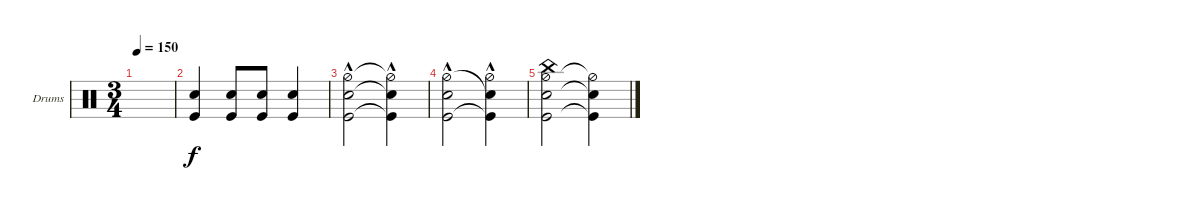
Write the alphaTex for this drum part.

\defaultSystemsLayout 4
\bracketExtendMode groupsimilarinstruments
\firstSystemTrackNameOrientation horizontal
\otherSystemsTrackNameOrientation horizontal
\track ("Drumkit" "Drums") {instrument percussion}
\staff {score}
\articulation defaults
\ts (3 4)
\tempo 150
\clef neutral
\ks c
|
("Kick (hit)" "Snare (hit) 2").4 ("Kick (hit)" "Snare (hit) 2").8 ("Kick (hit)" "Snare (hit) 2").8 ("Kick (hit)" "Snare (hit) 2").4 |
("Kick (hit)"{hac} "Hi-Hat (half)"{hac} "Snare (hit) 2"{hac}).2 ("Kick (hit)"{hac t} "Hi-Hat (half)"{hac t} "Snare (hit) 2"{hac t}).4 |
("Kick (hit)"{hac} "Snare (hit) 2"{hac} "Hi-Hat (half)"{hac}).2 ("Kick (hit)"{hac t} "Hi-Hat (half)"{hac} "Snare (hit) 2"{hac t}).4 |
("Kick (hit)" "Hi-Hat (half)" "Snare (hit) 2" "China (hit)").2 ("Kick (hit)"{t} "Hi-Hat (half)"{t} "Snare (hit) 2"{t}).4
